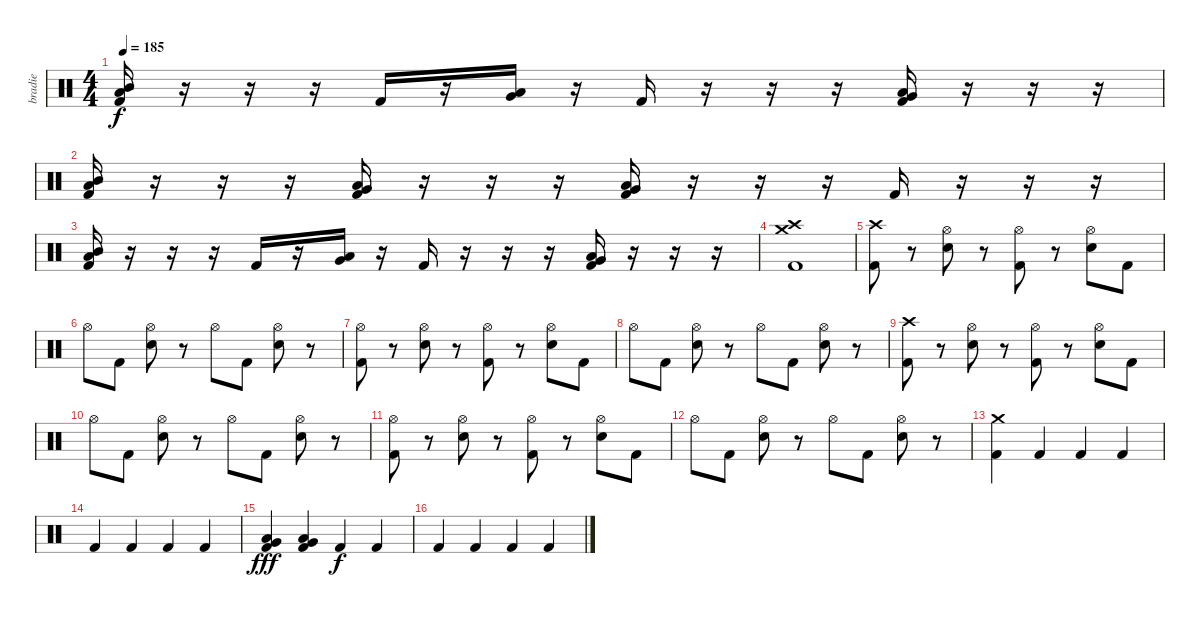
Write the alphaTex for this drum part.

\track ("bradie" "bradie") {instrument percussion}
\staff {score}
\articulation defaults
\ts (4 4)
\tempo 185
\clef neutral
\ks c
("Mid Tom (hit)" "Low Tom (hit)" "Kick (hit) 2").16{dy f} r.16 r.16 r.16 "Kick (hit) 2".16 r.16 ("Low Tom (hit)" "Very Low Tom (hit)").16 r.16 "Kick (hit) 2".16 r.16 r.16 r.16 ("Very Low Tom (hit)" "Low Floor Tom (hit)" "Kick (hit) 2").16 r.16 r.16 r.16 |
("Mid Tom (hit)" "Low Tom (hit)" "Kick (hit) 2").16 r.16 r.16 r.16 ("Low Tom (hit)" "Very Low Tom (hit)" "Kick (hit) 2").16 r.16 r.16 r.16 ("Very Low Tom (hit)" "Low Floor Tom (hit)" "Kick (hit) 2").16 r.16 r.16 r.16 "Kick (hit) 2".16 r.16 r.16 r.16 |
("Mid Tom (hit)" "Low Tom (hit)" "Kick (hit) 2").16 r.16 r.16 r.16 "Kick (hit) 2".16 r.16 ("Low Tom (hit)" "Very Low Tom (hit)").16 r.16 "Kick (hit) 2".16 r.16 r.16 r.16 ("Very Low Tom (hit)" "Low Floor Tom (hit)" "Kick (hit) 2").16 r.16 r.16 r.16 |
("Crash high (hit)" "Crash medium (hit)" "Kick (hit) 2").1 |
("Crash high (hit)" "Kick (hit) 2").8 r.8 ("Hi-Hat (open)" "Electric Snare (hit)").8 r.8 ("Hi-Hat (open)" "Kick (hit) 2").8 r.8 ("Hi-Hat (open)" "Electric Snare (hit)").8 "Kick (hit) 2".8 |
"Hi-Hat (open)".8 "Kick (hit) 2".8 ("Hi-Hat (open)" "Electric Snare (hit)").8 r.8 "Hi-Hat (open)".8 "Kick (hit) 2".8 ("Hi-Hat (open)" "Electric Snare (hit)").8 r.8 |
("Hi-Hat (open)" "Kick (hit) 2").8 r.8 ("Hi-Hat (open)" "Electric Snare (hit)").8 r.8 ("Hi-Hat (open)" "Kick (hit) 2").8 r.8 ("Hi-Hat (open)" "Electric Snare (hit)").8 "Kick (hit) 2".8 |
"Hi-Hat (open)".8 "Kick (hit) 2".8 ("Hi-Hat (open)" "Electric Snare (hit)").8 r.8 "Hi-Hat (open)".8 "Kick (hit) 2".8 ("Hi-Hat (open)" "Electric Snare (hit)").8 r.8 |
("Crash high (hit)" "Kick (hit) 2").8 r.8 ("Hi-Hat (open)" "Electric Snare (hit)").8 r.8 ("Hi-Hat (open)" "Kick (hit) 2").8 r.8 ("Hi-Hat (open)" "Electric Snare (hit)").8 "Kick (hit) 2".8 |
"Hi-Hat (open)".8 "Kick (hit) 2".8 ("Hi-Hat (open)" "Electric Snare (hit)").8 r.8 "Hi-Hat (open)".8 "Kick (hit) 2".8 ("Hi-Hat (open)" "Electric Snare (hit)").8 r.8 |
("Hi-Hat (open)" "Kick (hit) 2").8 r.8 ("Hi-Hat (open)" "Electric Snare (hit)").8 r.8 ("Hi-Hat (open)" "Kick (hit) 2").8 r.8 ("Hi-Hat (open)" "Electric Snare (hit)").8 "Kick (hit) 2".8 |
"Hi-Hat (open)".8 "Kick (hit) 2".8 ("Hi-Hat (open)" "Electric Snare (hit)").8 r.8 "Hi-Hat (open)".8 "Kick (hit) 2".8 ("Hi-Hat (open)" "Electric Snare (hit)").8 r.8 |
("Crash medium (hit)" "Kick (hit) 2").4 "Kick (hit) 2".4 "Kick (hit) 2".4 "Kick (hit) 2".4 |
"Kick (hit) 2".4 "Kick (hit) 2".4 "Kick (hit) 2".4 "Kick (hit) 2".4 |
("Very Low Tom (hit)" "Low Floor Tom (hit)" "Kick (hit) 2").4{dy fff} ("Very Low Tom (hit)" "Low Floor Tom (hit)" "Kick (hit) 2").4 "Kick (hit) 2".4{dy f} "Kick (hit) 2".4 |
"Kick (hit) 2".4 "Kick (hit) 2".4 "Kick (hit) 2".4 "Kick (hit) 2".4
